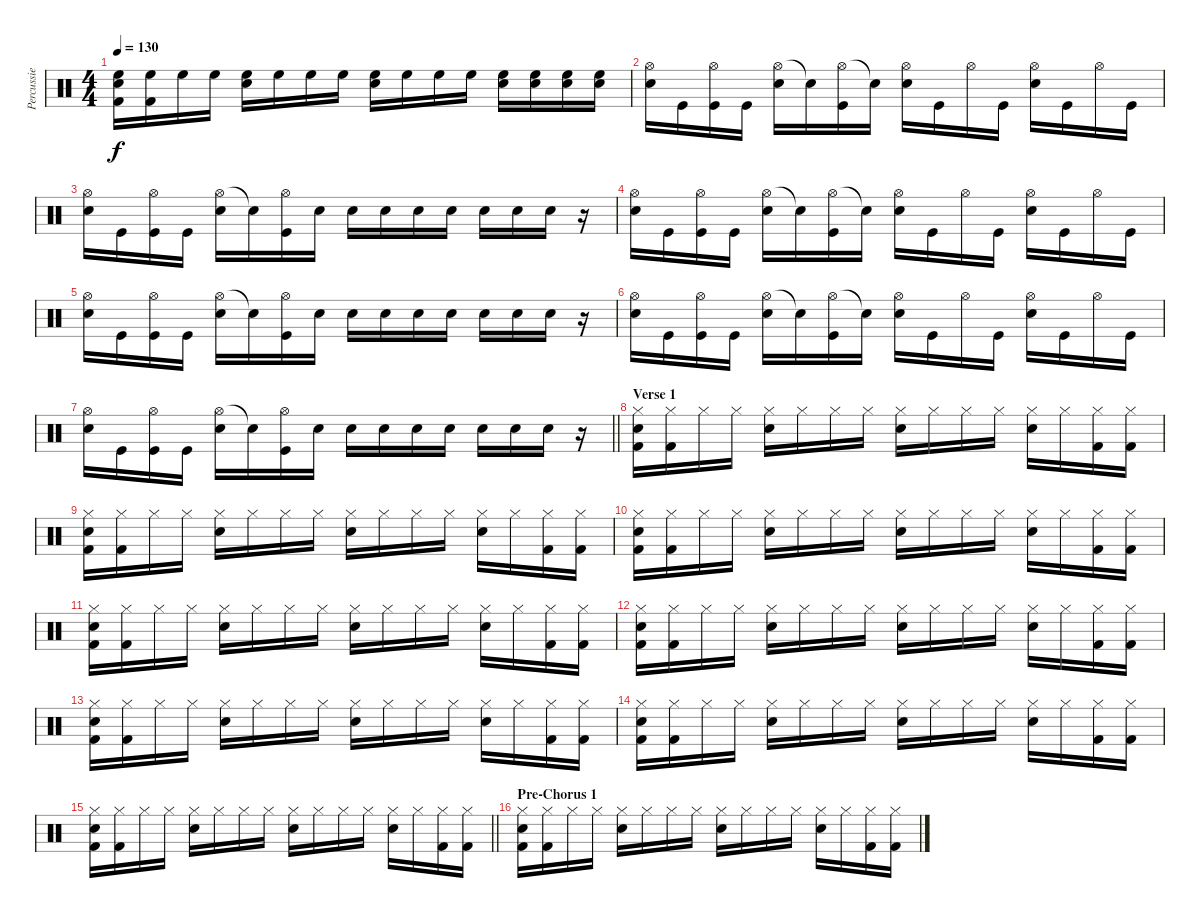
\track ("Percussie" "Percussie") {instrument percussion}
\staff {score}
\articulation defaults
\ts (4 4)
\tempo 130
\clef neutral
\ks c
("High Floor Tom (hit)" "Electric Snare (hit)" "Kick (hit) 2").16{dy f} ("High Floor Tom (hit)" "Kick (hit) 2").16 "High Floor Tom (hit)".16 "High Floor Tom (hit)".16 ("High Floor Tom (hit)" "Electric Snare (hit)").16 "High Floor Tom (hit)".16 "High Floor Tom (hit)".16 "High Floor Tom (hit)".16 ("High Floor Tom (hit)" "Electric Snare (hit)").16 "High Floor Tom (hit)".16 "High Floor Tom (hit)".16 "High Floor Tom (hit)".16 ("High Floor Tom (hit)" "Snare (hit) 2").16 ("High Floor Tom (hit)" "Snare (hit) 2").16 ("High Floor Tom (hit)" "Snare (hit) 2").16 ("High Floor Tom (hit)" "Snare (hit) 2").16 |
("Hi-Hat (open)" "Snare (hit) 2").16 "Kick (hit)".16 ("Hi-Hat (open)" "Kick (hit)").16 "Kick (hit)".16 ("Hi-Hat (open)" "Snare (hit) 2").16 "Snare (hit)"{t}.16 ("Hi-Hat (open)" "Kick (hit)").16 "Snare (hit)"{t}.16 ("Hi-Hat (open)" "Snare (hit) 2").16 "Kick (hit)".16 "Hi-Hat (open)".16 "Kick (hit)".16 ("Hi-Hat (open)" "Snare (hit) 2").16 "Kick (hit)".16 "Hi-Hat (open)".16 "Kick (hit)".16 |
("Hi-Hat (open)" "Snare (hit) 2").16 "Kick (hit)".16 ("Hi-Hat (open)" "Kick (hit)").16 "Kick (hit)".16 ("Hi-Hat (open)" "Snare (hit) 2").16 "Snare (hit)"{t}.16 ("Hi-Hat (open)" "Kick (hit)").16 "Snare (hit) 2".16 "Snare (hit) 2".16 "Snare (hit) 2".16 "Snare (hit) 2".16 "Snare (hit) 2".16 "Snare (hit) 2".16 "Snare (hit) 2".16 "Snare (hit) 2".16 r.16 |
("Hi-Hat (open)" "Snare (hit) 2").16 "Kick (hit)".16 ("Hi-Hat (open)" "Kick (hit)").16 "Kick (hit)".16 ("Hi-Hat (open)" "Snare (hit) 2").16 "Snare (hit)"{t}.16 ("Hi-Hat (open)" "Kick (hit)").16 "Snare (hit)"{t}.16 ("Hi-Hat (open)" "Snare (hit) 2").16 "Kick (hit)".16 "Hi-Hat (open)".16 "Kick (hit)".16 ("Hi-Hat (open)" "Snare (hit) 2").16 "Kick (hit)".16 "Hi-Hat (open)".16 "Kick (hit)".16 |
("Hi-Hat (open)" "Snare (hit) 2").16 "Kick (hit)".16 ("Hi-Hat (open)" "Kick (hit)").16 "Kick (hit)".16 ("Hi-Hat (open)" "Snare (hit) 2").16 "Snare (hit)"{t}.16 ("Hi-Hat (open)" "Kick (hit)").16 "Snare (hit) 2".16 "Snare (hit) 2".16 "Snare (hit) 2".16 "Snare (hit) 2".16 "Snare (hit) 2".16 "Snare (hit) 2".16 "Snare (hit) 2".16 "Snare (hit) 2".16 r.16 |
("Hi-Hat (open)" "Snare (hit) 2").16 "Kick (hit)".16 ("Hi-Hat (open)" "Kick (hit)").16 "Kick (hit)".16 ("Hi-Hat (open)" "Snare (hit) 2").16 "Snare (hit)"{t}.16 ("Hi-Hat (open)" "Kick (hit)").16 "Snare (hit)"{t}.16 ("Hi-Hat (open)" "Snare (hit) 2").16 "Kick (hit)".16 "Hi-Hat (open)".16 "Kick (hit)".16 ("Hi-Hat (open)" "Snare (hit) 2").16 "Kick (hit)".16 "Hi-Hat (open)".16 "Kick (hit)".16 |
\barLineRight lightlight
("Hi-Hat (open)" "Snare (hit) 2").16 "Kick (hit)".16 ("Hi-Hat (open)" "Kick (hit)").16 "Kick (hit)".16 ("Hi-Hat (open)" "Snare (hit) 2").16 "Snare (hit)"{t}.16 ("Hi-Hat (open)" "Kick (hit)").16 "Snare (hit) 2".16 "Snare (hit) 2".16 "Snare (hit) 2".16 "Snare (hit) 2".16 "Snare (hit) 2".16 "Snare (hit) 2".16 "Snare (hit) 2".16 "Snare (hit) 2".16 r.16 |
\section ("" "Verse 1")
("Hi-Hat (closed)" "Electric Snare (hit)" "Kick (hit) 2").16 ("Hi-Hat (closed)" "Kick (hit) 2").16 "Hi-Hat (closed)".16 "Hi-Hat (closed)".16 ("Hi-Hat (closed)" "Electric Snare (hit)").16 "Hi-Hat (closed)".16 "Hi-Hat (closed)".16 "Hi-Hat (closed)".16 ("Hi-Hat (closed)" "Electric Snare (hit)").16 "Hi-Hat (closed)".16 "Hi-Hat (closed)".16 "Hi-Hat (closed)".16 ("Hi-Hat (closed)" "Electric Snare (hit)").16 "Hi-Hat (closed)".16 ("Hi-Hat (closed)" "Kick (hit) 2").16 ("Hi-Hat (closed)" "Kick (hit) 2").16 |
("Hi-Hat (closed)" "Electric Snare (hit)" "Kick (hit) 2").16 ("Hi-Hat (closed)" "Kick (hit) 2").16 "Hi-Hat (closed)".16 "Hi-Hat (closed)".16 ("Hi-Hat (closed)" "Electric Snare (hit)").16 "Hi-Hat (closed)".16 "Hi-Hat (closed)".16 "Hi-Hat (closed)".16 ("Hi-Hat (closed)" "Electric Snare (hit)").16 "Hi-Hat (closed)".16 "Hi-Hat (closed)".16 "Hi-Hat (closed)".16 ("Hi-Hat (closed)" "Electric Snare (hit)").16 "Hi-Hat (closed)".16 ("Hi-Hat (closed)" "Kick (hit) 2").16 ("Hi-Hat (closed)" "Kick (hit) 2").16 |
("Hi-Hat (closed)" "Electric Snare (hit)" "Kick (hit) 2").16 ("Hi-Hat (closed)" "Kick (hit) 2").16 "Hi-Hat (closed)".16 "Hi-Hat (closed)".16 ("Hi-Hat (closed)" "Electric Snare (hit)").16 "Hi-Hat (closed)".16 "Hi-Hat (closed)".16 "Hi-Hat (closed)".16 ("Hi-Hat (closed)" "Electric Snare (hit)").16 "Hi-Hat (closed)".16 "Hi-Hat (closed)".16 "Hi-Hat (closed)".16 ("Hi-Hat (closed)" "Electric Snare (hit)").16 "Hi-Hat (closed)".16 ("Hi-Hat (closed)" "Kick (hit) 2").16 ("Hi-Hat (closed)" "Kick (hit) 2").16 |
("Hi-Hat (closed)" "Electric Snare (hit)" "Kick (hit) 2").16 ("Hi-Hat (closed)" "Kick (hit) 2").16 "Hi-Hat (closed)".16 "Hi-Hat (closed)".16 ("Hi-Hat (closed)" "Electric Snare (hit)").16 "Hi-Hat (closed)".16 "Hi-Hat (closed)".16 "Hi-Hat (closed)".16 ("Hi-Hat (closed)" "Electric Snare (hit)").16 "Hi-Hat (closed)".16 "Hi-Hat (closed)".16 "Hi-Hat (closed)".16 ("Hi-Hat (closed)" "Electric Snare (hit)").16 "Hi-Hat (closed)".16 ("Hi-Hat (closed)" "Kick (hit) 2").16 ("Hi-Hat (closed)" "Kick (hit) 2").16 |
("Hi-Hat (closed)" "Electric Snare (hit)" "Kick (hit) 2").16 ("Hi-Hat (closed)" "Kick (hit) 2").16 "Hi-Hat (closed)".16 "Hi-Hat (closed)".16 ("Hi-Hat (closed)" "Electric Snare (hit)").16 "Hi-Hat (closed)".16 "Hi-Hat (closed)".16 "Hi-Hat (closed)".16 ("Hi-Hat (closed)" "Electric Snare (hit)").16 "Hi-Hat (closed)".16 "Hi-Hat (closed)".16 "Hi-Hat (closed)".16 ("Hi-Hat (closed)" "Electric Snare (hit)").16 "Hi-Hat (closed)".16 ("Hi-Hat (closed)" "Kick (hit) 2").16 ("Hi-Hat (closed)" "Kick (hit) 2").16 |
("Hi-Hat (closed)" "Electric Snare (hit)" "Kick (hit) 2").16 ("Hi-Hat (closed)" "Kick (hit) 2").16 "Hi-Hat (closed)".16 "Hi-Hat (closed)".16 ("Hi-Hat (closed)" "Electric Snare (hit)").16 "Hi-Hat (closed)".16 "Hi-Hat (closed)".16 "Hi-Hat (closed)".16 ("Hi-Hat (closed)" "Electric Snare (hit)").16 "Hi-Hat (closed)".16 "Hi-Hat (closed)".16 "Hi-Hat (closed)".16 ("Hi-Hat (closed)" "Electric Snare (hit)").16 "Hi-Hat (closed)".16 ("Hi-Hat (closed)" "Kick (hit) 2").16 ("Hi-Hat (closed)" "Kick (hit) 2").16 |
("Hi-Hat (closed)" "Electric Snare (hit)" "Kick (hit) 2").16 ("Hi-Hat (closed)" "Kick (hit) 2").16 "Hi-Hat (closed)".16 "Hi-Hat (closed)".16 ("Hi-Hat (closed)" "Electric Snare (hit)").16 "Hi-Hat (closed)".16 "Hi-Hat (closed)".16 "Hi-Hat (closed)".16 ("Hi-Hat (closed)" "Electric Snare (hit)").16 "Hi-Hat (closed)".16 "Hi-Hat (closed)".16 "Hi-Hat (closed)".16 ("Hi-Hat (closed)" "Electric Snare (hit)").16 "Hi-Hat (closed)".16 ("Hi-Hat (closed)" "Kick (hit) 2").16 ("Hi-Hat (closed)" "Kick (hit) 2").16 |
\barLineRight lightlight
("Hi-Hat (closed)" "Electric Snare (hit)" "Kick (hit) 2").16 ("Hi-Hat (closed)" "Kick (hit) 2").16 "Hi-Hat (closed)".16 "Hi-Hat (closed)".16 ("Hi-Hat (closed)" "Electric Snare (hit)").16 "Hi-Hat (closed)".16 "Hi-Hat (closed)".16 "Hi-Hat (closed)".16 ("Hi-Hat (closed)" "Electric Snare (hit)").16 "Hi-Hat (closed)".16 "Hi-Hat (closed)".16 "Hi-Hat (closed)".16 ("Hi-Hat (closed)" "Electric Snare (hit)").16 "Hi-Hat (closed)".16 ("Hi-Hat (closed)" "Kick (hit) 2").16 ("Hi-Hat (closed)" "Kick (hit) 2").16 |
\section ("" "Pre-Chorus 1")
("Hi-Hat (closed)" "Electric Snare (hit)" "Kick (hit) 2").16 ("Hi-Hat (closed)" "Kick (hit) 2").16 "Hi-Hat (closed)".16 "Hi-Hat (closed)".16 ("Hi-Hat (closed)" "Electric Snare (hit)").16 "Hi-Hat (closed)".16 "Hi-Hat (closed)".16 "Hi-Hat (closed)".16 ("Hi-Hat (closed)" "Electric Snare (hit)").16 "Hi-Hat (closed)".16 "Hi-Hat (closed)".16 "Hi-Hat (closed)".16 ("Hi-Hat (closed)" "Electric Snare (hit)").16 "Hi-Hat (closed)".16 ("Hi-Hat (closed)" "Kick (hit) 2").16 ("Hi-Hat (closed)" "Kick (hit) 2").16
